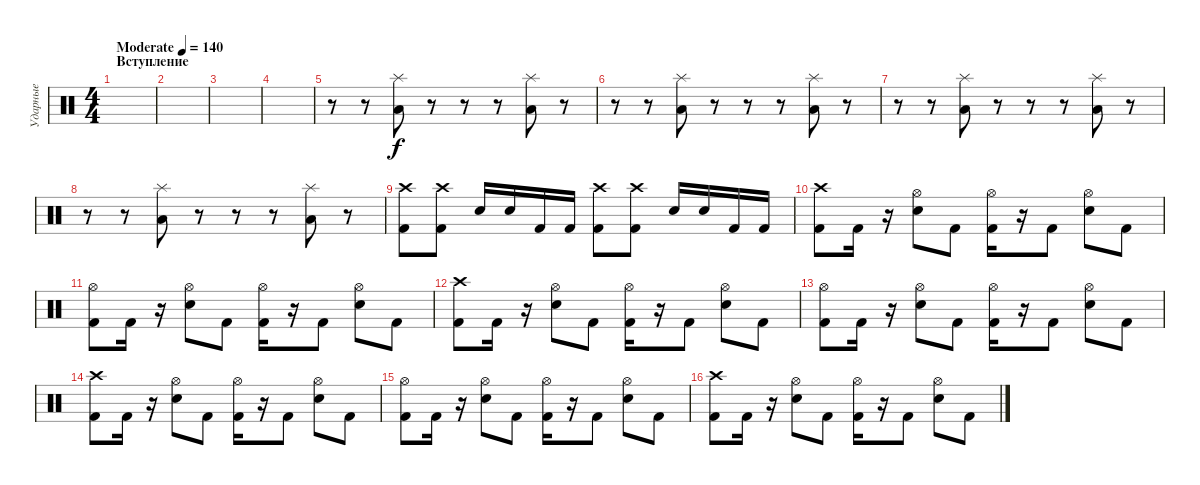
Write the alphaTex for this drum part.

\track ("Ударные" "Ударные") {instrument percussion}
\staff {score}
\articulation defaults
\ts (4 4)
\section ("" "Вступление")
\tempo (140 "Moderate")
\clef neutral
\ks c
|
|
|
|
r.8 r.8 ("Splash (hit)" "Low Floor Tom (hit)").8 r.8 r.8 r.8 ("Splash (hit)" "Low Floor Tom (hit)").8 r.8 |
r.8 r.8 ("Splash (hit)" "Low Floor Tom (hit)").8 r.8 r.8 r.8 ("Splash (hit)" "Low Floor Tom (hit)").8 r.8 |
r.8 r.8 ("Splash (hit)" "Low Floor Tom (hit)").8 r.8 r.8 r.8 ("Splash (hit)" "Low Floor Tom (hit)").8 r.8 |
r.8 r.8 ("Splash (hit)" "Low Floor Tom (hit)").8 r.8 r.8 r.8 ("Splash (hit)" "Low Floor Tom (hit)").8 r.8 |
("Crash high (hit)" "Kick (hit) 2").8 ("Crash high (hit)" "Kick (hit) 2").8 "Electric Snare (hit)".16 "Electric Snare (hit)".16 "Kick (hit) 2".16 "Kick (hit) 2".16 ("Crash high (hit)" "Kick (hit) 2").8 ("Crash high (hit)" "Kick (hit) 2").8 "Electric Snare (hit)".16 "Electric Snare (hit)".16 "Kick (hit) 2".16 "Kick (hit) 2".16 |
("Crash high (hit)" "Kick (hit) 2").8 "Kick (hit) 2".16 r.16 ("Hi-Hat (open)" "Electric Snare (hit)").8 "Kick (hit) 2".8 ("Hi-Hat (open)" "Kick (hit) 2").16 r.16 "Kick (hit) 2".8 ("Hi-Hat (open)" "Electric Snare (hit)").8 "Kick (hit) 2".8 |
("Hi-Hat (open)" "Kick (hit) 2").8 "Kick (hit) 2".16 r.16 ("Hi-Hat (open)" "Electric Snare (hit)").8 "Kick (hit) 2".8 ("Hi-Hat (open)" "Kick (hit) 2").16 r.16 "Kick (hit) 2".8 ("Hi-Hat (open)" "Electric Snare (hit)").8 "Kick (hit) 2".8 |
("Crash high (hit)" "Kick (hit) 2").8 "Kick (hit) 2".16 r.16 ("Hi-Hat (open)" "Electric Snare (hit)").8 "Kick (hit) 2".8 ("Hi-Hat (open)" "Kick (hit) 2").16 r.16 "Kick (hit) 2".8 ("Hi-Hat (open)" "Electric Snare (hit)").8 "Kick (hit) 2".8 |
("Hi-Hat (open)" "Kick (hit) 2").8 "Kick (hit) 2".16 r.16 ("Hi-Hat (open)" "Electric Snare (hit)").8 "Kick (hit) 2".8 ("Hi-Hat (open)" "Kick (hit) 2").16 r.16 "Kick (hit) 2".8 ("Hi-Hat (open)" "Electric Snare (hit)").8 "Kick (hit) 2".8 |
("Crash high (hit)" "Kick (hit) 2").8 "Kick (hit) 2".16 r.16 ("Hi-Hat (open)" "Electric Snare (hit)").8 "Kick (hit) 2".8 ("Hi-Hat (open)" "Kick (hit) 2").16 r.16 "Kick (hit) 2".8 ("Hi-Hat (open)" "Electric Snare (hit)").8 "Kick (hit) 2".8 |
("Hi-Hat (open)" "Kick (hit) 2").8 "Kick (hit) 2".16 r.16 ("Hi-Hat (open)" "Electric Snare (hit)").8 "Kick (hit) 2".8 ("Hi-Hat (open)" "Kick (hit) 2").16 r.16 "Kick (hit) 2".8 ("Hi-Hat (open)" "Electric Snare (hit)").8 "Kick (hit) 2".8 |
("Crash high (hit)" "Kick (hit) 2").8 "Kick (hit) 2".16 r.16 ("Hi-Hat (open)" "Electric Snare (hit)").8 "Kick (hit) 2".8 ("Hi-Hat (open)" "Kick (hit) 2").16 r.16 "Kick (hit) 2".8 ("Hi-Hat (open)" "Electric Snare (hit)").8 "Kick (hit) 2".8
